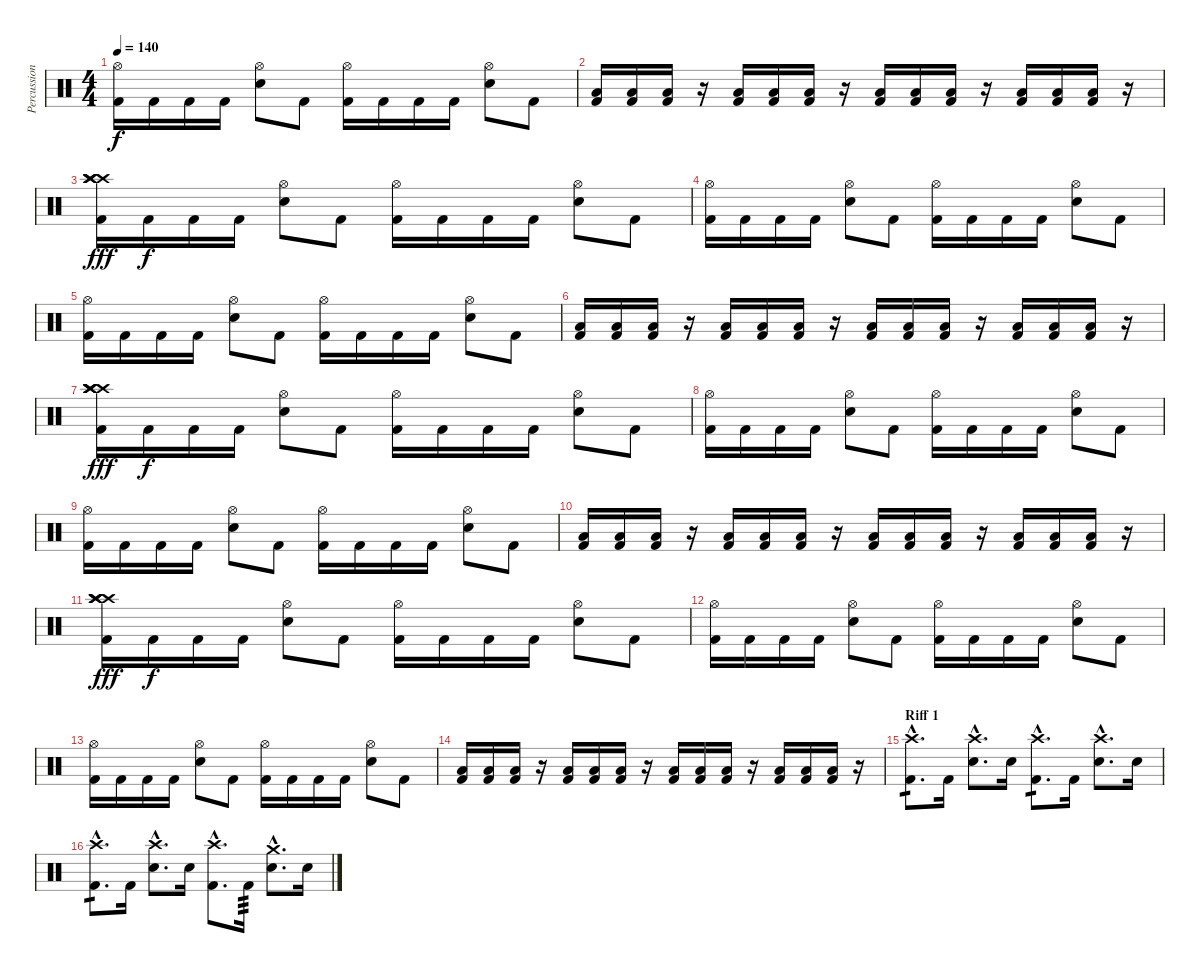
\track ("Percussions" "Percussion") {instrument percussion}
\staff {score}
\articulation defaults
\ts (4 4)
\tempo 140
\clef neutral
\ks c
("Hi-Hat (open)" "Kick (hit) 2").16{dy f} "Kick (hit) 2".16 "Kick (hit) 2".16 "Kick (hit) 2".16 ("Hi-Hat (open)" "Snare (hit) 2").8 "Kick (hit) 2".8 ("Hi-Hat (open)" "Kick (hit) 2").16 "Kick (hit) 2".16 "Kick (hit) 2".16 "Kick (hit) 2".16 ("Hi-Hat (open)" "Snare (hit) 2").8 "Kick (hit) 2".8 |
("Low Tom (hit)" "Kick (hit) 2").16 ("Low Tom (hit)" "Kick (hit) 2").16 ("Low Tom (hit)" "Kick (hit) 2").16 r.16 ("Low Tom (hit)" "Kick (hit) 2").16 ("Low Tom (hit)" "Kick (hit) 2").16 ("Low Tom (hit)" "Kick (hit) 2").16 r.16 ("Low Tom (hit)" "Kick (hit) 2").16 ("Low Tom (hit)" "Kick (hit) 2").16 ("Low Tom (hit)" "Kick (hit) 2").16 r.16 ("Low Tom (hit)" "Kick (hit) 2").16 ("Low Tom (hit)" "Kick (hit) 2").16 ("Low Tom (hit)" "Kick (hit) 2").16 r.16 |
("Crash high (hit)" "Crash high (hit)" "Crash high (hit)" "Crash high (hit)" "Crash high (hit)" "Kick (hit) 2").16{dy fff} "Kick (hit) 2".16{dy f} "Kick (hit) 2".16 "Kick (hit) 2".16 ("Hi-Hat (open)" "Snare (hit) 2").8 "Kick (hit) 2".8 ("Hi-Hat (open)" "Kick (hit) 2").16 "Kick (hit) 2".16 "Kick (hit) 2".16 "Kick (hit) 2".16 ("Hi-Hat (open)" "Snare (hit) 2").8 "Kick (hit) 2".8 |
("Hi-Hat (open)" "Kick (hit) 2").16 "Kick (hit) 2".16 "Kick (hit) 2".16 "Kick (hit) 2".16 ("Hi-Hat (open)" "Snare (hit) 2").8 "Kick (hit) 2".8 ("Hi-Hat (open)" "Kick (hit) 2").16 "Kick (hit) 2".16 "Kick (hit) 2".16 "Kick (hit) 2".16 ("Hi-Hat (open)" "Snare (hit) 2").8 "Kick (hit) 2".8 |
("Hi-Hat (open)" "Kick (hit) 2").16 "Kick (hit) 2".16 "Kick (hit) 2".16 "Kick (hit) 2".16 ("Hi-Hat (open)" "Snare (hit) 2").8 "Kick (hit) 2".8 ("Hi-Hat (open)" "Kick (hit) 2").16 "Kick (hit) 2".16 "Kick (hit) 2".16 "Kick (hit) 2".16 ("Hi-Hat (open)" "Snare (hit) 2").8 "Kick (hit) 2".8 |
("Low Tom (hit)" "Kick (hit) 2").16 ("Low Tom (hit)" "Kick (hit) 2").16 ("Low Tom (hit)" "Kick (hit) 2").16 r.16 ("Low Tom (hit)" "Kick (hit) 2").16 ("Low Tom (hit)" "Kick (hit) 2").16 ("Low Tom (hit)" "Kick (hit) 2").16 r.16 ("Low Tom (hit)" "Kick (hit) 2").16 ("Low Tom (hit)" "Kick (hit) 2").16 ("Low Tom (hit)" "Kick (hit) 2").16 r.16 ("Low Tom (hit)" "Kick (hit) 2").16 ("Low Tom (hit)" "Kick (hit) 2").16 ("Low Tom (hit)" "Kick (hit) 2").16 r.16 |
("Crash high (hit)" "Crash high (hit)" "Crash high (hit)" "Crash high (hit)" "Crash high (hit)" "Kick (hit) 2").16{dy fff} "Kick (hit) 2".16{dy f} "Kick (hit) 2".16 "Kick (hit) 2".16 ("Hi-Hat (open)" "Snare (hit) 2").8 "Kick (hit) 2".8 ("Hi-Hat (open)" "Kick (hit) 2").16 "Kick (hit) 2".16 "Kick (hit) 2".16 "Kick (hit) 2".16 ("Hi-Hat (open)" "Snare (hit) 2").8 "Kick (hit) 2".8 |
("Hi-Hat (open)" "Kick (hit) 2").16 "Kick (hit) 2".16 "Kick (hit) 2".16 "Kick (hit) 2".16 ("Hi-Hat (open)" "Snare (hit) 2").8 "Kick (hit) 2".8 ("Hi-Hat (open)" "Kick (hit) 2").16 "Kick (hit) 2".16 "Kick (hit) 2".16 "Kick (hit) 2".16 ("Hi-Hat (open)" "Snare (hit) 2").8 "Kick (hit) 2".8 |
("Hi-Hat (open)" "Kick (hit) 2").16 "Kick (hit) 2".16 "Kick (hit) 2".16 "Kick (hit) 2".16 ("Hi-Hat (open)" "Snare (hit) 2").8 "Kick (hit) 2".8 ("Hi-Hat (open)" "Kick (hit) 2").16 "Kick (hit) 2".16 "Kick (hit) 2".16 "Kick (hit) 2".16 ("Hi-Hat (open)" "Snare (hit) 2").8 "Kick (hit) 2".8 |
("Low Tom (hit)" "Kick (hit) 2").16 ("Low Tom (hit)" "Kick (hit) 2").16 ("Low Tom (hit)" "Kick (hit) 2").16 r.16 ("Low Tom (hit)" "Kick (hit) 2").16 ("Low Tom (hit)" "Kick (hit) 2").16 ("Low Tom (hit)" "Kick (hit) 2").16 r.16 ("Low Tom (hit)" "Kick (hit) 2").16 ("Low Tom (hit)" "Kick (hit) 2").16 ("Low Tom (hit)" "Kick (hit) 2").16 r.16 ("Low Tom (hit)" "Kick (hit) 2").16 ("Low Tom (hit)" "Kick (hit) 2").16 ("Low Tom (hit)" "Kick (hit) 2").16 r.16 |
("Crash high (hit)" "Crash high (hit)" "Crash high (hit)" "Crash high (hit)" "Crash high (hit)" "Kick (hit) 2").16{dy fff} "Kick (hit) 2".16{dy f} "Kick (hit) 2".16 "Kick (hit) 2".16 ("Hi-Hat (open)" "Snare (hit) 2").8 "Kick (hit) 2".8 ("Hi-Hat (open)" "Kick (hit) 2").16 "Kick (hit) 2".16 "Kick (hit) 2".16 "Kick (hit) 2".16 ("Hi-Hat (open)" "Snare (hit) 2").8 "Kick (hit) 2".8 |
("Hi-Hat (open)" "Kick (hit) 2").16 "Kick (hit) 2".16 "Kick (hit) 2".16 "Kick (hit) 2".16 ("Hi-Hat (open)" "Snare (hit) 2").8 "Kick (hit) 2".8 ("Hi-Hat (open)" "Kick (hit) 2").16 "Kick (hit) 2".16 "Kick (hit) 2".16 "Kick (hit) 2".16 ("Hi-Hat (open)" "Snare (hit) 2").8 "Kick (hit) 2".8 |
("Hi-Hat (open)" "Kick (hit) 2").16 "Kick (hit) 2".16 "Kick (hit) 2".16 "Kick (hit) 2".16 ("Hi-Hat (open)" "Snare (hit) 2").8 "Kick (hit) 2".8 ("Hi-Hat (open)" "Kick (hit) 2").16 "Kick (hit) 2".16 "Kick (hit) 2".16 "Kick (hit) 2".16 ("Hi-Hat (open)" "Snare (hit) 2").8 "Kick (hit) 2".8 |
("Low Tom (hit)" "Kick (hit) 2").16 ("Low Tom (hit)" "Kick (hit) 2").16 ("Low Tom (hit)" "Kick (hit) 2").16 r.16 ("Low Tom (hit)" "Kick (hit) 2").16 ("Low Tom (hit)" "Kick (hit) 2").16 ("Low Tom (hit)" "Kick (hit) 2").16 r.16 ("Low Tom (hit)" "Kick (hit) 2").16 ("Low Tom (hit)" "Kick (hit) 2").16 ("Low Tom (hit)" "Kick (hit) 2").16 r.16 ("Low Tom (hit)" "Kick (hit) 2").16 ("Low Tom (hit)" "Kick (hit) 2").16 ("Low Tom (hit)" "Kick (hit) 2").16 r.16 |
\section ("" "Riff 1")
("Crash high (hit)"{hac} "Kick (hit) 2"{hac}).8{d tp 1} "Kick (hit) 2".16{volume 16} ("Crash high (hit)"{hac} "Snare (hit) 2"{hac}).8{d} "Snare (hit) 2".16 ("Crash high (hit)"{hac} "Kick (hit) 2"{hac}).8{d tp 1} "Kick (hit) 2".16 ("Crash high (hit)"{hac} "Snare (hit) 2"{hac}).8{d} "Snare (hit) 2".16 |
("Crash high (hit)"{hac} "Kick (hit) 2"{hac}).8{d tp 1} "Kick (hit) 2".16 ("Crash high (hit)"{hac} "Snare (hit) 2"{hac}).8{d} "Snare (hit) 2".16 ("Crash high (hit)"{hac} "Kick (hit) 2").8{d} "Kick (hit) 2".16{tp 3} ("Crash medium (hit)"{hac} "Snare (hit) 2"{hac}).8{d} "Snare (hit) 2".16
